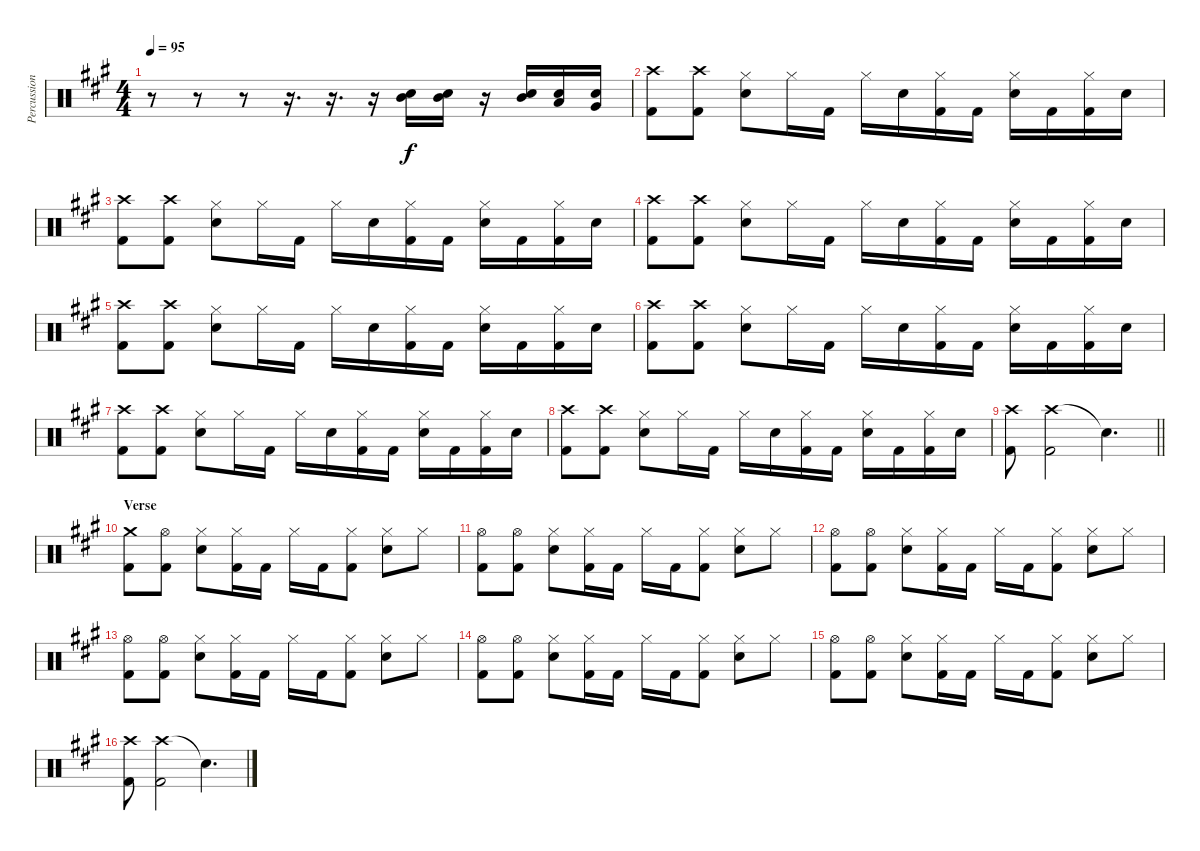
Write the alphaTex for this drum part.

\track ("Percussion" "Percussion") {instrument percussion}
\staff {score}
\articulation defaults
\ts (4 4)
\tempo 95
\clef neutral
\ks a
r.8{dy f} r.8 r.8 r.16{d} r.16{d} r.16 ("Electric Snare (hit)" "Mid Tom (hit)").16 ("Electric Snare (hit)" "Mid Tom (hit)").16 r.16 ("Electric Snare (hit)" "Mid Tom (hit)").16 ("Electric Snare (hit)" "Low Tom (hit)").16 ("Electric Snare (hit)" "Very Low Tom (hit)").16 |
("Crash high (hit)" "Kick (hit) 2").8 ("Crash high (hit)" "Kick (hit) 2").8 ("Hi-Hat (closed)" "Electric Snare (hit)").8 "Hi-Hat (closed)".16 "Kick (hit) 2".16 "Hi-Hat (closed)".16 "Electric Snare (hit)".16 ("Hi-Hat (closed)" "Kick (hit) 2").16 "Kick (hit) 2".16 ("Hi-Hat (closed)" "Electric Snare (hit)").16 "Kick (hit) 2".16 ("Hi-Hat (closed)" "Kick (hit) 2").16 "Electric Snare (hit)".16 |
("Crash high (hit)" "Kick (hit) 2").8 ("Crash high (hit)" "Kick (hit) 2").8 ("Hi-Hat (closed)" "Electric Snare (hit)").8 "Hi-Hat (closed)".16 "Kick (hit) 2".16 "Hi-Hat (closed)".16 "Electric Snare (hit)".16 ("Hi-Hat (closed)" "Kick (hit) 2").16 "Kick (hit) 2".16 ("Hi-Hat (closed)" "Electric Snare (hit)").16 "Kick (hit) 2".16 ("Hi-Hat (closed)" "Kick (hit) 2").16 "Electric Snare (hit)".16 |
("Crash high (hit)" "Kick (hit) 2").8 ("Crash high (hit)" "Kick (hit) 2").8 ("Hi-Hat (closed)" "Electric Snare (hit)").8 "Hi-Hat (closed)".16 "Kick (hit) 2".16 "Hi-Hat (closed)".16 "Electric Snare (hit)".16 ("Hi-Hat (closed)" "Kick (hit) 2").16 "Kick (hit) 2".16 ("Hi-Hat (closed)" "Electric Snare (hit)").16 "Kick (hit) 2".16 ("Hi-Hat (closed)" "Kick (hit) 2").16 "Electric Snare (hit)".16 |
("Crash high (hit)" "Kick (hit) 2").8 ("Crash high (hit)" "Kick (hit) 2").8 ("Hi-Hat (closed)" "Electric Snare (hit)").8 "Hi-Hat (closed)".16 "Kick (hit) 2".16 "Hi-Hat (closed)".16 "Electric Snare (hit)".16 ("Hi-Hat (closed)" "Kick (hit) 2").16 "Kick (hit) 2".16 ("Hi-Hat (closed)" "Electric Snare (hit)").16 "Kick (hit) 2".16 ("Hi-Hat (closed)" "Kick (hit) 2").16 "Electric Snare (hit)".16 |
("Crash high (hit)" "Kick (hit) 2").8 ("Crash high (hit)" "Kick (hit) 2").8 ("Hi-Hat (closed)" "Electric Snare (hit)").8 "Hi-Hat (closed)".16 "Kick (hit) 2".16 "Hi-Hat (closed)".16 "Electric Snare (hit)".16 ("Hi-Hat (closed)" "Kick (hit) 2").16 "Kick (hit) 2".16 ("Hi-Hat (closed)" "Electric Snare (hit)").16 "Kick (hit) 2".16 ("Hi-Hat (closed)" "Kick (hit) 2").16 "Electric Snare (hit)".16 |
("Crash high (hit)" "Kick (hit) 2").8 ("Crash high (hit)" "Kick (hit) 2").8 ("Hi-Hat (closed)" "Electric Snare (hit)").8 "Hi-Hat (closed)".16 "Kick (hit) 2".16 "Hi-Hat (closed)".16 "Electric Snare (hit)".16 ("Hi-Hat (closed)" "Kick (hit) 2").16 "Kick (hit) 2".16 ("Hi-Hat (closed)" "Electric Snare (hit)").16 "Kick (hit) 2".16 ("Hi-Hat (closed)" "Kick (hit) 2").16 "Electric Snare (hit)".16 |
("Crash high (hit)" "Kick (hit) 2").8 ("Crash high (hit)" "Kick (hit) 2").8 ("Hi-Hat (closed)" "Electric Snare (hit)").8 "Hi-Hat (closed)".16 "Kick (hit) 2".16 "Hi-Hat (closed)".16 "Electric Snare (hit)".16 ("Hi-Hat (closed)" "Kick (hit) 2").16 "Kick (hit) 2".16 ("Hi-Hat (closed)" "Electric Snare (hit)").16 "Kick (hit) 2".16 ("Hi-Hat (closed)" "Kick (hit) 2").16 "Electric Snare (hit)".16 |
\barLineRight lightlight
("Crash high (hit)" "Kick (hit) 2").8 ("Crash high (hit)" "Kick (hit) 2").2 "Snare (hit)"{t}.4{d} |
\section ("" "Verse")
("Crash medium (hit)" "Kick (hit) 2").8 ("Hi-Hat (open)" "Kick (hit) 2").8 ("Hi-Hat (closed)" "Electric Snare (hit)").8 ("Hi-Hat (closed)" "Kick (hit) 2").16 "Kick (hit) 2".16 "Hi-Hat (closed)".16 "Kick (hit) 2".16 ("Hi-Hat (closed)" "Kick (hit) 2").8 ("Hi-Hat (closed)" "Electric Snare (hit)").8 "Hi-Hat (closed)".8 |
("Hi-Hat (open)" "Kick (hit) 2").8 ("Hi-Hat (open)" "Kick (hit) 2").8 ("Hi-Hat (closed)" "Electric Snare (hit)").8 ("Hi-Hat (closed)" "Kick (hit) 2").16 "Kick (hit) 2".16 "Hi-Hat (closed)".16 "Kick (hit) 2".16 ("Hi-Hat (closed)" "Kick (hit) 2").8 ("Hi-Hat (closed)" "Electric Snare (hit)").8 "Hi-Hat (closed)".8 |
("Hi-Hat (open)" "Kick (hit) 2").8 ("Hi-Hat (open)" "Kick (hit) 2").8 ("Hi-Hat (closed)" "Electric Snare (hit)").8 ("Hi-Hat (closed)" "Kick (hit) 2").16 "Kick (hit) 2".16 "Hi-Hat (closed)".16 "Kick (hit) 2".16 ("Hi-Hat (closed)" "Kick (hit) 2").8 ("Hi-Hat (closed)" "Electric Snare (hit)").8 "Hi-Hat (closed)".8 |
("Hi-Hat (open)" "Kick (hit) 2").8 ("Hi-Hat (open)" "Kick (hit) 2").8 ("Hi-Hat (closed)" "Electric Snare (hit)").8 ("Hi-Hat (closed)" "Kick (hit) 2").16 "Kick (hit) 2".16 "Hi-Hat (closed)".16 "Kick (hit) 2".16 ("Hi-Hat (closed)" "Kick (hit) 2").8 ("Hi-Hat (closed)" "Electric Snare (hit)").8 "Hi-Hat (closed)".8 |
("Hi-Hat (open)" "Kick (hit) 2").8 ("Hi-Hat (open)" "Kick (hit) 2").8 ("Hi-Hat (closed)" "Electric Snare (hit)").8 ("Hi-Hat (closed)" "Kick (hit) 2").16 "Kick (hit) 2".16 "Hi-Hat (closed)".16 "Kick (hit) 2".16 ("Hi-Hat (closed)" "Kick (hit) 2").8 ("Hi-Hat (closed)" "Electric Snare (hit)").8 "Hi-Hat (closed)".8 |
("Hi-Hat (open)" "Kick (hit) 2").8 ("Hi-Hat (open)" "Kick (hit) 2").8 ("Hi-Hat (closed)" "Electric Snare (hit)").8 ("Hi-Hat (closed)" "Kick (hit) 2").16 "Kick (hit) 2".16 "Hi-Hat (closed)".16 "Kick (hit) 2".16 ("Hi-Hat (closed)" "Kick (hit) 2").8 ("Hi-Hat (closed)" "Electric Snare (hit)").8 "Hi-Hat (closed)".8 |
("Crash high (hit)" "Kick (hit) 2").8 ("Crash high (hit)" "Kick (hit) 2").2 "Snare (hit)"{t}.4{d}
